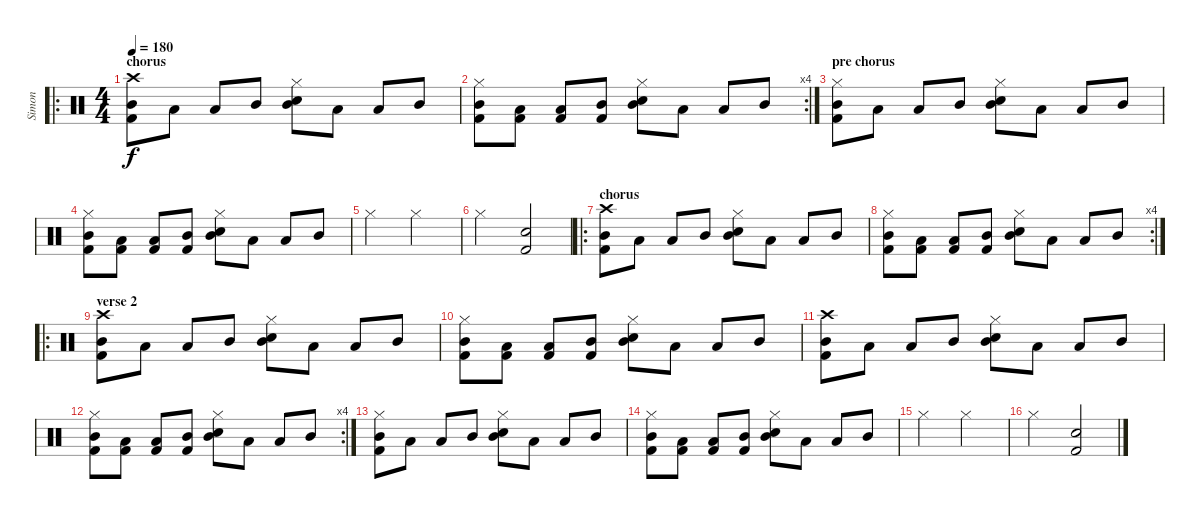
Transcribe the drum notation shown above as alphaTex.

\track ("Simon" "Simon") {instrument percussion}
\staff {score}
\articulation defaults
\ro
\ts (4 4)
\section ("" "chorus")
\tempo 180
\clef neutral
\ks c
("Crash high (hit)" "Mid Tom (hit)" "Kick (hit) 2").8{dy f} "Low Tom (hit)".8 "Low Tom (hit)".8 "Mid Tom (hit)".8 ("Hi-Hat (closed)" "Mid Tom (hit)" "Snare (hit) 2").8 "Low Tom (hit)".8 "Low Tom (hit)".8 "Mid Tom (hit)".8 |
\rc 4
("Hi-Hat (closed)" "Mid Tom (hit)" "Kick (hit) 2").8 ("Low Tom (hit)" "Kick (hit) 2").8 ("Low Tom (hit)" "Kick (hit) 2").8 ("Mid Tom (hit)" "Kick (hit) 2").8 ("Hi-Hat (closed)" "Mid Tom (hit)" "Snare (hit) 2").8 "Low Tom (hit)".8 "Low Tom (hit)".8 "Mid Tom (hit)".8 |
\section ("" "pre chorus")
("Hi-Hat (closed)" "Mid Tom (hit)" "Kick (hit) 2").8 "Low Tom (hit)".8 "Low Tom (hit)".8 "Mid Tom (hit)".8 ("Hi-Hat (closed)" "Mid Tom (hit)" "Snare (hit) 2").8 "Low Tom (hit)".8 "Low Tom (hit)".8 "Mid Tom (hit)".8 |
("Hi-Hat (closed)" "Mid Tom (hit)" "Kick (hit) 2").8 ("Low Tom (hit)" "Kick (hit) 2").8 ("Low Tom (hit)" "Kick (hit) 2").8 ("Mid Tom (hit)" "Kick (hit) 2").8 ("Hi-Hat (closed)" "Mid Tom (hit)" "Snare (hit) 2").8 "Low Tom (hit)".8 "Low Tom (hit)".8 "Mid Tom (hit)".8 |
"Hi-Hat (closed)".2 "Hi-Hat (closed)".2 |
"Hi-Hat (closed)".2 ("Snare (hit) 2" "Kick (hit) 2").2 |
\ro
\section ("" "chorus")
("Crash high (hit)" "Mid Tom (hit)" "Kick (hit) 2").8 "Low Tom (hit)".8 "Low Tom (hit)".8 "Mid Tom (hit)".8 ("Hi-Hat (closed)" "Mid Tom (hit)" "Snare (hit) 2").8 "Low Tom (hit)".8 "Low Tom (hit)".8 "Mid Tom (hit)".8 |
\rc 4
("Hi-Hat (closed)" "Mid Tom (hit)" "Kick (hit) 2").8 ("Low Tom (hit)" "Kick (hit) 2").8 ("Low Tom (hit)" "Kick (hit) 2").8 ("Mid Tom (hit)" "Kick (hit) 2").8 ("Hi-Hat (closed)" "Mid Tom (hit)" "Snare (hit) 2").8 "Low Tom (hit)".8 "Low Tom (hit)".8 "Mid Tom (hit)".8 |
\ro
\section ("" "verse 2")
("Crash high (hit)" "Mid Tom (hit)" "Kick (hit) 2").8 "Low Tom (hit)".8 "Low Tom (hit)".8 "Mid Tom (hit)".8 ("Hi-Hat (closed)" "Mid Tom (hit)" "Snare (hit) 2").8 "Low Tom (hit)".8 "Low Tom (hit)".8 "Mid Tom (hit)".8 |
("Hi-Hat (closed)" "Mid Tom (hit)" "Kick (hit) 2").8 ("Low Tom (hit)" "Kick (hit) 2").8 ("Low Tom (hit)" "Kick (hit) 2").8 ("Mid Tom (hit)" "Kick (hit) 2").8 ("Hi-Hat (closed)" "Mid Tom (hit)" "Snare (hit) 2").8 "Low Tom (hit)".8 "Low Tom (hit)".8 "Mid Tom (hit)".8 |
("Crash high (hit)" "Mid Tom (hit)" "Kick (hit) 2").8 "Low Tom (hit)".8 "Low Tom (hit)".8 "Mid Tom (hit)".8 ("Hi-Hat (closed)" "Mid Tom (hit)" "Snare (hit) 2").8 "Low Tom (hit)".8 "Low Tom (hit)".8 "Mid Tom (hit)".8 |
\rc 4
("Hi-Hat (closed)" "Mid Tom (hit)" "Kick (hit) 2").8 ("Low Tom (hit)" "Kick (hit) 2").8 ("Low Tom (hit)" "Kick (hit) 2").8 ("Mid Tom (hit)" "Kick (hit) 2").8 ("Hi-Hat (closed)" "Mid Tom (hit)" "Snare (hit) 2").8 "Low Tom (hit)".8 "Low Tom (hit)".8 "Mid Tom (hit)".8 |
("Hi-Hat (closed)" "Mid Tom (hit)" "Kick (hit) 2").8 "Low Tom (hit)".8 "Low Tom (hit)".8 "Mid Tom (hit)".8 ("Hi-Hat (closed)" "Mid Tom (hit)" "Snare (hit) 2").8 "Low Tom (hit)".8 "Low Tom (hit)".8 "Mid Tom (hit)".8 |
("Hi-Hat (closed)" "Mid Tom (hit)" "Kick (hit) 2").8 ("Low Tom (hit)" "Kick (hit) 2").8 ("Low Tom (hit)" "Kick (hit) 2").8 ("Mid Tom (hit)" "Kick (hit) 2").8 ("Hi-Hat (closed)" "Mid Tom (hit)" "Snare (hit) 2").8 "Low Tom (hit)".8 "Low Tom (hit)".8 "Mid Tom (hit)".8 |
"Hi-Hat (closed)".2 "Hi-Hat (closed)".2 |
"Hi-Hat (closed)".2 ("Snare (hit) 2" "Kick (hit) 2").2
